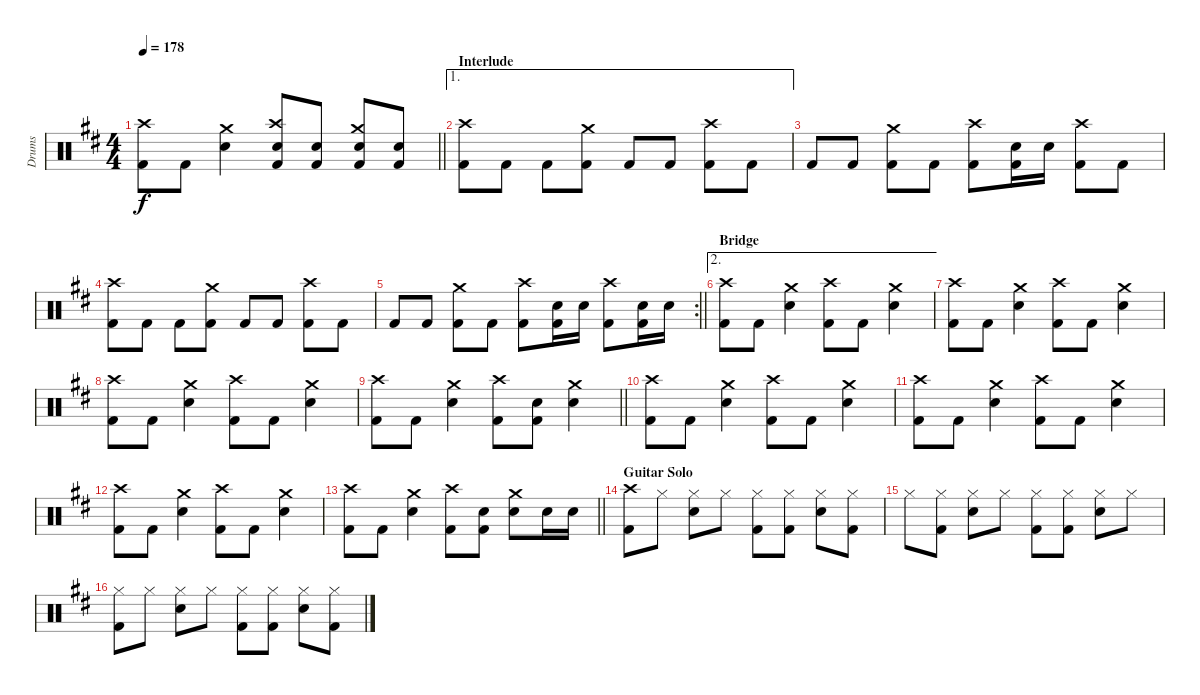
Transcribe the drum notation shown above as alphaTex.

\track ("Drums" "Drums") {instrument percussion}
\staff {score}
\articulation defaults
\ts (4 4)
\tempo 178
\clef neutral
\barLineRight lightlight
\ks d
("Kick (hit) 2" "Crash high (hit)").8{dy f} "Kick (hit) 2".8 ("Crash medium (hit)" "Snare (hit) 2").4 ("Kick (hit) 2" "Crash high (hit)" "Snare (hit) 2").8 ("Kick (hit) 2" "Snare (hit) 2").8 ("Kick (hit) 2" "Crash medium (hit)" "Snare (hit) 2").8 ("Kick (hit) 2" "Snare (hit) 2").8 |
\ae 1
\section ("" "Interlude")
("Kick (hit) 2" "Crash high (hit)").8 "Kick (hit) 2".8 "Kick (hit) 2".8 ("Kick (hit) 2" "Crash medium (hit)").8 "Kick (hit) 2".8 "Kick (hit) 2".8 ("Kick (hit) 2" "Crash high (hit)").8 "Kick (hit) 2".8 |
"Kick (hit) 2".8 "Kick (hit) 2".8 ("Kick (hit) 2" "Crash medium (hit)").8 "Kick (hit) 2".8 ("Kick (hit) 2" "Crash high (hit)").8 ("Kick (hit) 2" "Snare (hit) 2").16 "Snare (hit) 2".16 ("Kick (hit) 2" "Crash high (hit)").8 "Kick (hit) 2".8 |
("Kick (hit) 2" "Crash high (hit)").8 "Kick (hit) 2".8 "Kick (hit) 2".8 ("Kick (hit) 2" "Crash medium (hit)").8 "Kick (hit) 2".8 "Kick (hit) 2".8 ("Kick (hit) 2" "Crash high (hit)").8 "Kick (hit) 2".8 |
\rc 2
\barLineRight lightlight "Kick (hit) 2".8 "Kick (hit) 2".8
("Kick (hit) 2" "Crash medium (hit)").8 "Kick (hit) 2".8 ("Kick (hit) 2" "Crash high (hit)").8 ("Kick (hit) 2" "Snare (hit) 2").16 "Snare (hit) 2".16 ("Kick (hit) 2" "Crash high (hit)").8 ("Kick (hit) 2" "Snare (hit) 2").16 "Snare (hit) 2".16 |
\ae 2
\section ("" "Bridge")
("Kick (hit) 2" "Crash high (hit)").8 "Kick (hit) 2".8 ("Crash medium (hit)" "Snare (hit) 2").4 ("Kick (hit) 2" "Crash high (hit)").8 "Kick (hit) 2".8 ("Crash medium (hit)" "Snare (hit) 2").4 |
("Kick (hit) 2" "Crash high (hit)").8 "Kick (hit) 2".8 ("Crash medium (hit)" "Snare (hit) 2").4 ("Kick (hit) 2" "Crash high (hit)").8 "Kick (hit) 2".8 ("Crash medium (hit)" "Snare (hit) 2").4 |
("Kick (hit) 2" "Crash high (hit)").8 "Kick (hit) 2".8 ("Crash medium (hit)" "Snare (hit) 2").4 ("Kick (hit) 2" "Crash high (hit)").8 "Kick (hit) 2".8 ("Crash medium (hit)" "Snare (hit) 2").4 |
\barLineRight lightlight
("Kick (hit) 2" "Crash high (hit)").8 "Kick (hit) 2".8 ("Crash medium (hit)" "Snare (hit) 2").4 ("Kick (hit) 2" "Crash high (hit)").8 ("Kick (hit) 2" "Snare (hit) 2").8 ("Crash medium (hit)" "Snare (hit) 2").4 |
("Kick (hit) 2" "Crash high (hit)").8 "Kick (hit) 2".8 ("Crash medium (hit)" "Snare (hit) 2").4 ("Kick (hit) 2" "Crash high (hit)").8 "Kick (hit) 2".8 ("Crash medium (hit)" "Snare (hit) 2").4 |
("Kick (hit) 2" "Crash high (hit)").8 "Kick (hit) 2".8 ("Crash medium (hit)" "Snare (hit) 2").4 ("Kick (hit) 2" "Crash high (hit)").8 "Kick (hit) 2".8 ("Crash medium (hit)" "Snare (hit) 2").4 |
("Kick (hit) 2" "Crash high (hit)").8 "Kick (hit) 2".8 ("Crash medium (hit)" "Snare (hit) 2").4 ("Kick (hit) 2" "Crash high (hit)").8 "Kick (hit) 2".8 ("Crash medium (hit)" "Snare (hit) 2").4 |
\barLineRight lightlight
("Kick (hit) 2" "Crash high (hit)").8 "Kick (hit) 2".8 ("Crash medium (hit)" "Snare (hit) 2").4 ("Kick (hit) 2" "Crash high (hit)").8 ("Kick (hit) 2" "Snare (hit) 2").8 ("Crash medium (hit)" "Snare (hit) 2").8 "Snare (hit) 2".16 "Snare (hit) 2".16 |
\section ("" "Guitar Solo")
("Kick (hit) 2" "Crash high (hit)").8 "Hi-Hat (closed)".8 ("Snare (hit) 2" "Hi-Hat (closed)").8 "Hi-Hat (closed)".8 ("Kick (hit) 2" "Hi-Hat (closed)").8 ("Kick (hit) 2" "Hi-Hat (closed)").8 ("Snare (hit) 2" "Hi-Hat (closed)").8 ("Kick (hit) 2" "Hi-Hat (closed)").8 |
"Hi-Hat (closed)".8 ("Kick (hit) 2" "Hi-Hat (closed)").8 ("Snare (hit) 2" "Hi-Hat (closed)").8 "Hi-Hat (closed)".8 ("Kick (hit) 2" "Hi-Hat (closed)").8 ("Kick (hit) 2" "Hi-Hat (closed)").8 ("Snare (hit) 2" "Hi-Hat (closed)").8 "Hi-Hat (closed)".8 |
("Kick (hit) 2" "Hi-Hat (closed)").8 "Hi-Hat (closed)".8 ("Snare (hit) 2" "Hi-Hat (closed)").8 "Hi-Hat (closed)".8 ("Kick (hit) 2" "Hi-Hat (closed)").8 ("Kick (hit) 2" "Hi-Hat (closed)").8 ("Snare (hit) 2" "Hi-Hat (closed)").8 ("Kick (hit) 2" "Hi-Hat (closed)").8
